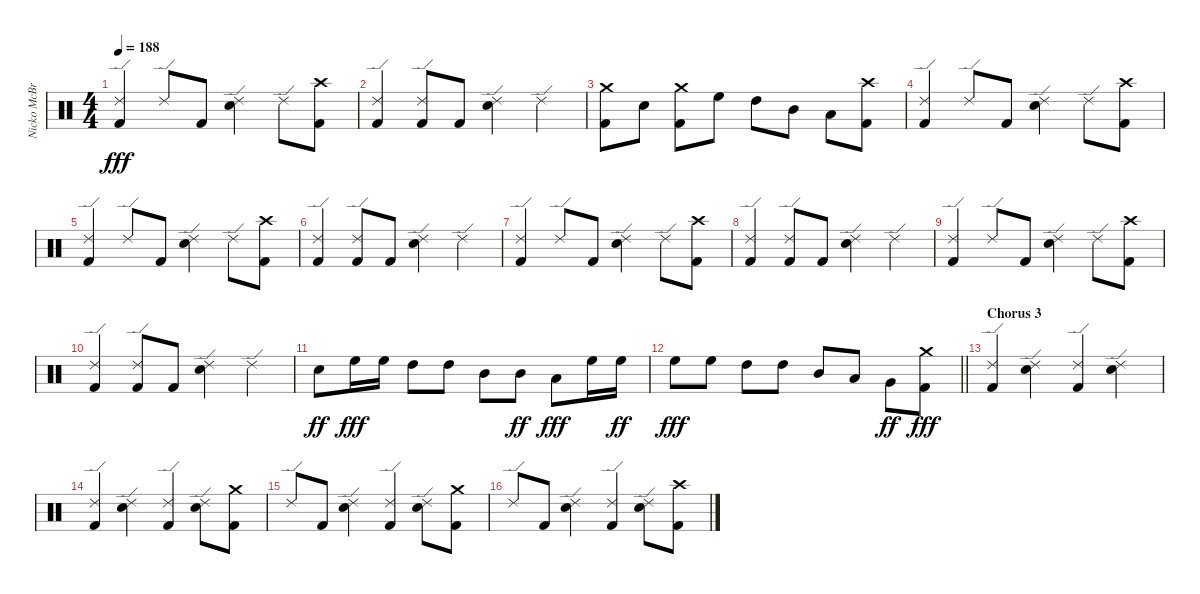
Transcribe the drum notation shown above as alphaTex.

\track ("Nicko McBrain" "Nicko McBr") {instrument percussion}
\staff {score}
\articulation defaults
\ts (4 4)
\tempo 188
\clef neutral
\ks c
("Ride (edge) 2" "Kick (hit) 2").4{dy fff} "Ride (edge) 2".8 "Kick (hit) 2".8 ("Ride (edge) 2" "Electric Snare (hit)").4 "Ride (edge) 2".8 ("Crash high (hit)" "Kick (hit) 2").8 |
("Ride (edge) 2" "Kick (hit) 2").4 ("Ride (edge) 2" "Kick (hit) 2").8 "Kick (hit) 2".8 ("Ride (edge) 2" "Electric Snare (hit)").4 "Ride (edge) 2".4 |
("Crash medium (hit)" "Kick (hit) 2").8 "Electric Snare (hit)".8 ("Crash medium (hit)" "Kick (hit) 2").8 "High Floor Tom (hit)".8 "High Tom (hit)".8 "Mid Tom (hit)".8 "Low Tom (hit)".8 ("Crash high (hit)" "Kick (hit) 2").8 |
("Ride (edge) 2" "Kick (hit) 2").4 "Ride (edge) 2".8 "Kick (hit) 2".8 ("Ride (edge) 2" "Electric Snare (hit)").4 "Ride (edge) 2".8 ("Crash high (hit)" "Kick (hit) 2").8 |
("Ride (edge) 2" "Kick (hit) 2").4 "Ride (edge) 2".8 "Kick (hit) 2".8 ("Ride (edge) 2" "Electric Snare (hit)").4 "Ride (edge) 2".8 ("Crash high (hit)" "Kick (hit) 2").8 |
("Ride (edge) 2" "Kick (hit) 2").4 ("Ride (edge) 2" "Kick (hit) 2").8 "Kick (hit) 2".8 ("Ride (edge) 2" "Electric Snare (hit)").4 "Ride (edge) 2".4 |
("Ride (edge) 2" "Kick (hit) 2").4 "Ride (edge) 2".8 "Kick (hit) 2".8 ("Ride (edge) 2" "Electric Snare (hit)").4 "Ride (edge) 2".8 ("Crash high (hit)" "Kick (hit) 2").8 |
("Ride (edge) 2" "Kick (hit) 2").4 ("Ride (edge) 2" "Kick (hit) 2").8 "Kick (hit) 2".8 ("Ride (edge) 2" "Electric Snare (hit)").4 "Ride (edge) 2".4 |
("Ride (edge) 2" "Kick (hit) 2").4 "Ride (edge) 2".8 "Kick (hit) 2".8 ("Ride (edge) 2" "Electric Snare (hit)").4 "Ride (edge) 2".8 ("Crash high (hit)" "Kick (hit) 2").8 |
("Ride (edge) 2" "Kick (hit) 2").4 ("Ride (edge) 2" "Kick (hit) 2").8 "Kick (hit) 2".8 ("Ride (edge) 2" "Electric Snare (hit)").4 "Ride (edge) 2".4 |
"Electric Snare (hit)".8{dy ff} "High Floor Tom (hit)".16{dy fff} "High Floor Tom (hit)".16 "High Tom (hit)".8 "High Tom (hit)".8 "Mid Tom (hit)".8 "Mid Tom (hit)".8{dy ff} "Low Tom (hit)".8{dy fff} "High Floor Tom (hit)".16 "High Floor Tom (hit)".16{dy ff} |
\barLineRight lightlight "High Floor Tom (hit)".8{dy fff} "High Floor Tom (hit)".8 "High Tom (hit)".8 "High Tom (hit)".8 "Mid Tom (hit)".8 "Low Tom (hit)".8 "Very Low Tom (hit)".8{dy ff}
("Crash medium (hit)" "Kick (hit) 2").8{dy fff} |
\section ("" "Chorus 3")
("Ride (edge) 2" "Kick (hit) 2").4 ("Ride (edge) 2" "Electric Snare (hit)").4 ("Ride (edge) 2" "Kick (hit) 2").4 ("Ride (edge) 2" "Electric Snare (hit)").4 |
("Ride (edge) 2" "Kick (hit) 2").4 ("Ride (edge) 2" "Electric Snare (hit)").4 ("Ride (edge) 2" "Kick (hit) 2").4 ("Ride (edge) 2" "Electric Snare (hit)").8 ("Crash medium (hit)" "Kick (hit) 2").8 |
"Ride (edge) 2".8 "Kick (hit) 2".8 ("Ride (edge) 2" "Electric Snare (hit)").4 ("Ride (edge) 2" "Kick (hit) 2").4 ("Ride (edge) 2" "Electric Snare (hit)").8 ("Crash medium (hit)" "Kick (hit) 2").8 |
"Ride (edge) 2".8 "Kick (hit) 2".8 ("Ride (edge) 2" "Electric Snare (hit)").4 ("Ride (edge) 2" "Kick (hit) 2").4 ("Ride (edge) 2" "Electric Snare (hit)").8 ("Crash high (hit)" "Kick (hit) 2").8
